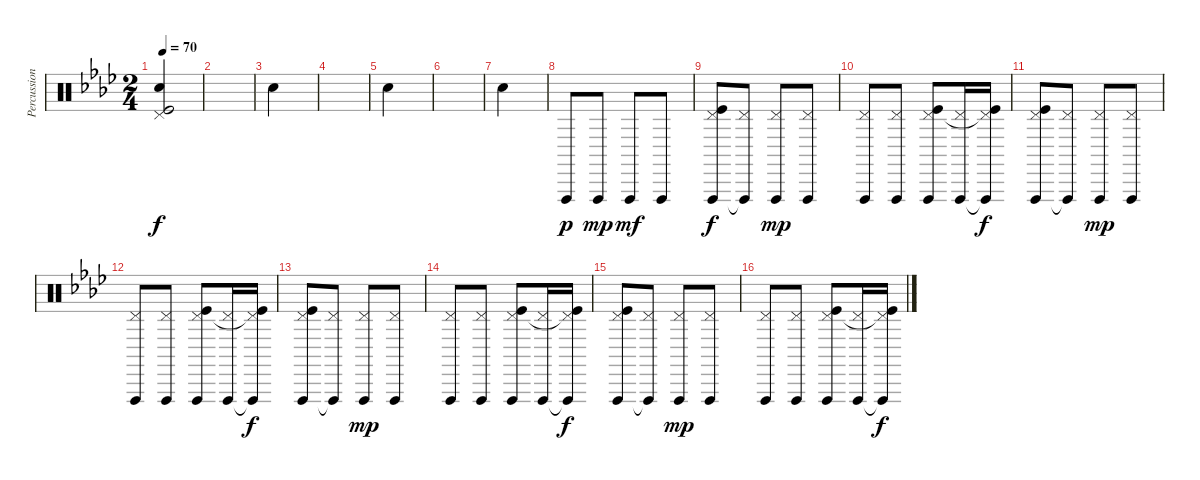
\track ("Percussion" "Percussion") {instrument percussion}
\staff {score}
\articulation defaults
\ts (2 4)
\tempo 70
\clef neutral
\ks fminor
("Kick (hit)" "Pedal Hi-Hat (hit)" "Metronome (bell)").2{dy f} |
|
"Metronome (bell)".2 |
|
"Metronome (bell)".2 |
|
"Metronome (bell)".2 |
"Vibraslap (hit)".8{dy p} "Vibraslap (hit)".8{dy mp} "Vibraslap (hit)".8{dy mf} "Vibraslap (hit)".8 |
("Vibraslap (hit)" "Kick (hit)" "Pedal Hi-Hat (hit)").8{dy f} ("Vibraslap (hit)"{t} "Pedal Hi-Hat (hit)").8 ("Vibraslap (hit)" "Pedal Hi-Hat (hit)").8{dy mp} ("Vibraslap (hit)" "Pedal Hi-Hat (hit)").8 |
("Vibraslap (hit)" "Pedal Hi-Hat (hit)").8 ("Vibraslap (hit)" "Pedal Hi-Hat (hit)").8 ("Vibraslap (hit)" "Kick (hit)" "Pedal Hi-Hat (hit)").8 ("Vibraslap (hit)" "Pedal Hi-Hat (hit)").16 ("Vibraslap (hit)"{t} "Kick (hit)" "Pedal Hi-Hat (hit)"{t}).16{dy f} |
("Vibraslap (hit)" "Kick (hit)" "Pedal Hi-Hat (hit)").8 ("Vibraslap (hit)"{t} "Pedal Hi-Hat (hit)").8 ("Vibraslap (hit)" "Pedal Hi-Hat (hit)").8{dy mp} ("Vibraslap (hit)" "Pedal Hi-Hat (hit)").8 |
("Vibraslap (hit)" "Pedal Hi-Hat (hit)").8 ("Vibraslap (hit)" "Pedal Hi-Hat (hit)").8 ("Vibraslap (hit)" "Kick (hit)" "Pedal Hi-Hat (hit)").8 ("Vibraslap (hit)" "Pedal Hi-Hat (hit)").16 ("Vibraslap (hit)"{t} "Kick (hit)" "Pedal Hi-Hat (hit)"{t}).16{dy f} |
("Vibraslap (hit)" "Kick (hit)" "Pedal Hi-Hat (hit)").8 ("Vibraslap (hit)"{t} "Pedal Hi-Hat (hit)").8 ("Vibraslap (hit)" "Pedal Hi-Hat (hit)").8{dy mp} ("Vibraslap (hit)" "Pedal Hi-Hat (hit)").8 |
("Vibraslap (hit)" "Pedal Hi-Hat (hit)").8 ("Vibraslap (hit)" "Pedal Hi-Hat (hit)").8 ("Vibraslap (hit)" "Kick (hit)" "Pedal Hi-Hat (hit)").8 ("Vibraslap (hit)" "Pedal Hi-Hat (hit)").16 ("Vibraslap (hit)"{t} "Kick (hit)" "Pedal Hi-Hat (hit)"{t}).16{dy f} |
("Vibraslap (hit)" "Kick (hit)" "Pedal Hi-Hat (hit)").8 ("Vibraslap (hit)"{t} "Pedal Hi-Hat (hit)").8 ("Vibraslap (hit)" "Pedal Hi-Hat (hit)").8{dy mp} ("Vibraslap (hit)" "Pedal Hi-Hat (hit)").8 |
("Vibraslap (hit)" "Pedal Hi-Hat (hit)").8 ("Vibraslap (hit)" "Pedal Hi-Hat (hit)").8 ("Vibraslap (hit)" "Kick (hit)" "Pedal Hi-Hat (hit)").8 ("Vibraslap (hit)" "Pedal Hi-Hat (hit)").16 ("Vibraslap (hit)"{t} "Kick (hit)" "Pedal Hi-Hat (hit)"{t}).16{dy f}
